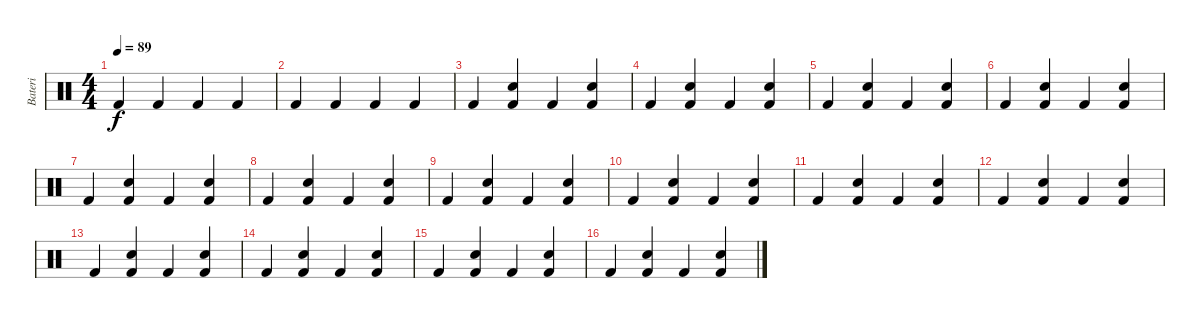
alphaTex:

\track ("Bateri" "Bateri") {instrument percussion}
\staff {score}
\articulation defaults
\ts (4 4)
\tempo 89
\clef neutral
\ks c "Kick (hit) 2".4{dy f} "Kick (hit) 2".4 "Kick (hit) 2".4 "Kick (hit) 2".4
|
"Kick (hit) 2".4 "Kick (hit) 2".4 "Kick (hit) 2".4 "Kick (hit) 2".4 |
"Kick (hit) 2".4 ("Kick (hit) 2" "Snare (hit) 2").4 "Kick (hit) 2".4 ("Kick (hit) 2" "Snare (hit) 2").4 |
"Kick (hit) 2".4 ("Kick (hit) 2" "Snare (hit) 2").4 "Kick (hit) 2".4 ("Kick (hit) 2" "Snare (hit) 2").4 |
"Kick (hit) 2".4 ("Kick (hit) 2" "Snare (hit) 2").4 "Kick (hit) 2".4 ("Kick (hit) 2" "Snare (hit) 2").4 |
"Kick (hit) 2".4 ("Kick (hit) 2" "Snare (hit) 2").4 "Kick (hit) 2".4 ("Kick (hit) 2" "Snare (hit) 2").4 |
"Kick (hit) 2".4 ("Kick (hit) 2" "Snare (hit) 2").4 "Kick (hit) 2".4 ("Kick (hit) 2" "Snare (hit) 2").4 |
"Kick (hit) 2".4 ("Kick (hit) 2" "Snare (hit) 2").4 "Kick (hit) 2".4 ("Kick (hit) 2" "Snare (hit) 2").4 |
"Kick (hit) 2".4 ("Kick (hit) 2" "Snare (hit) 2").4 "Kick (hit) 2".4 ("Kick (hit) 2" "Snare (hit) 2").4 |
"Kick (hit) 2".4 ("Kick (hit) 2" "Snare (hit) 2").4 "Kick (hit) 2".4 ("Kick (hit) 2" "Snare (hit) 2").4 |
"Kick (hit) 2".4 ("Kick (hit) 2" "Snare (hit) 2").4 "Kick (hit) 2".4 ("Kick (hit) 2" "Snare (hit) 2").4 |
"Kick (hit) 2".4 ("Kick (hit) 2" "Snare (hit) 2").4 "Kick (hit) 2".4 ("Kick (hit) 2" "Snare (hit) 2").4 |
"Kick (hit) 2".4 ("Kick (hit) 2" "Snare (hit) 2").4 "Kick (hit) 2".4 ("Kick (hit) 2" "Snare (hit) 2").4 |
"Kick (hit) 2".4 ("Kick (hit) 2" "Snare (hit) 2").4 "Kick (hit) 2".4 ("Kick (hit) 2" "Snare (hit) 2").4 |
"Kick (hit) 2".4 ("Kick (hit) 2" "Snare (hit) 2").4 "Kick (hit) 2".4 ("Kick (hit) 2" "Snare (hit) 2").4 |
"Kick (hit) 2".4 ("Kick (hit) 2" "Snare (hit) 2").4 "Kick (hit) 2".4 ("Kick (hit) 2" "Snare (hit) 2").4
